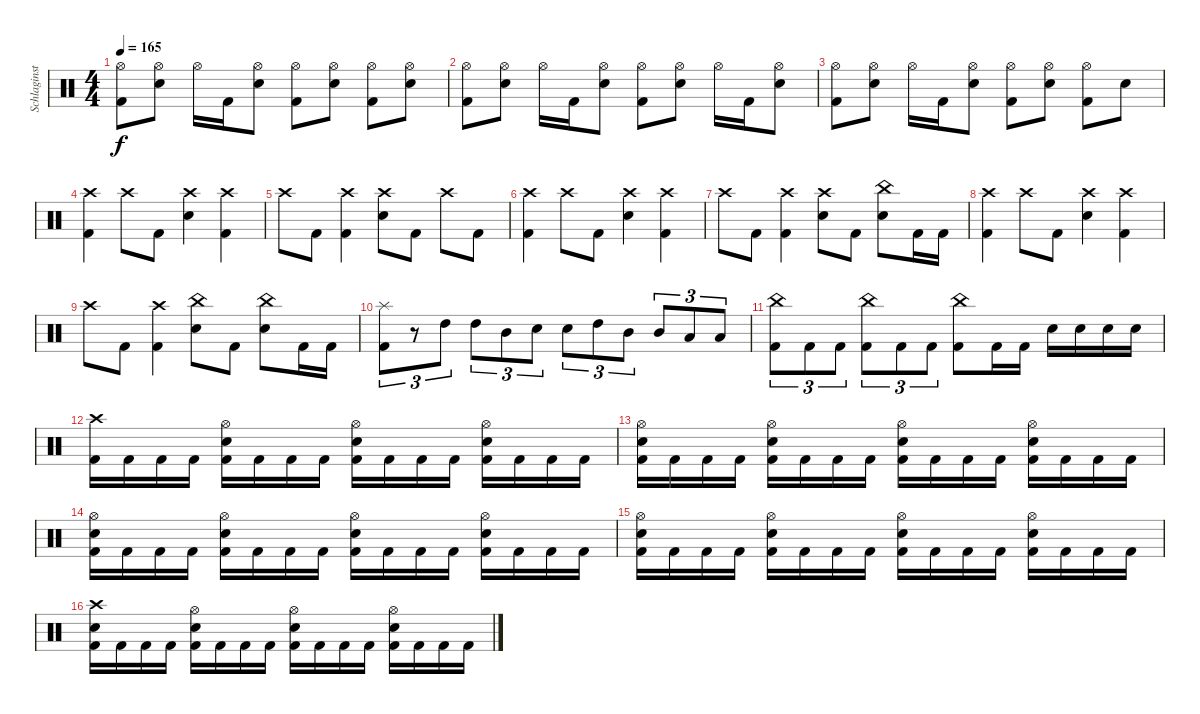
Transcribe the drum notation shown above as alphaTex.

\track ("Schlaginstrumente - Auswahl" "Schlaginst") {instrument percussion}
\staff {score}
\articulation defaults
\ts (4 4)
\tempo 165
\clef neutral
\ks c
("Hi-Hat (open)" "Kick (hit) 2").8{dy f} ("Hi-Hat (open)" "Snare (hit) 2").8 "Hi-Hat (open)".16 "Kick (hit) 2".16 ("Hi-Hat (open)" "Snare (hit) 2").8 ("Hi-Hat (open)" "Kick (hit) 2").8 ("Hi-Hat (open)" "Snare (hit) 2").8 ("Hi-Hat (open)" "Kick (hit) 2").8 ("Hi-Hat (open)" "Snare (hit) 2").8 |
("Hi-Hat (open)" "Kick (hit) 2").8 ("Hi-Hat (open)" "Snare (hit) 2").8 "Hi-Hat (open)".16 "Kick (hit) 2".16 ("Hi-Hat (open)" "Snare (hit) 2").8 ("Hi-Hat (open)" "Kick (hit) 2").8 ("Hi-Hat (open)" "Snare (hit) 2").8 "Hi-Hat (open)".16 "Kick (hit) 2".16 ("Hi-Hat (open)" "Snare (hit) 2").8 |
("Hi-Hat (open)" "Kick (hit) 2").8 ("Hi-Hat (open)" "Snare (hit) 2").8 "Hi-Hat (open)".16 "Kick (hit) 2".16 ("Hi-Hat (open)" "Snare (hit) 2").8 ("Hi-Hat (open)" "Kick (hit) 2").8 ("Hi-Hat (open)" "Snare (hit) 2").8 ("Hi-Hat (open)" "Kick (hit) 2").8 "Snare (hit) 2".8 |
("Crash high (hit)" "Kick (hit) 2").4 "Crash high (hit)".8 "Kick (hit) 2".8 ("Crash high (hit)" "Snare (hit) 2").4 ("Crash high (hit)" "Kick (hit) 2").4 |
"Crash high (hit)".8 "Kick (hit) 2".8 ("Crash high (hit)" "Kick (hit) 2").4 ("Crash high (hit)" "Snare (hit) 2").8 "Kick (hit) 2".8 "Crash high (hit)".8 "Kick (hit) 2".8 |
("Crash high (hit)" "Kick (hit) 2").4 "Crash high (hit)".8 "Kick (hit) 2".8 ("Crash high (hit)" "Snare (hit) 2").4 ("Crash high (hit)" "Kick (hit) 2").4 |
"Crash high (hit)".8 "Kick (hit) 2".8 ("Crash high (hit)" "Kick (hit) 2").4 ("Crash high (hit)" "Snare (hit) 2").8 "Kick (hit) 2".8 ("China (hit)" "Snare (hit) 2").8 "Kick (hit) 2".16 "Kick (hit) 2".16 |
("Crash high (hit)" "Kick (hit) 2").4 "Crash high (hit)".8 "Kick (hit) 2".8 ("Crash high (hit)" "Snare (hit) 2").4 ("Crash high (hit)" "Kick (hit) 2").4 |
"Crash high (hit)".8 "Kick (hit) 2".8 ("Crash high (hit)" "Kick (hit) 2").4 ("China (hit)" "Snare (hit) 2").8 "Kick (hit) 2".8 ("China (hit)" "Snare (hit) 2").8 "Kick (hit) 2".16 "Kick (hit) 2".16 |
("Splash (hit)" "Kick (hit) 2").8{tu (3 2)} r.8{tu (3 2)} "High Tom (hit)".8{tu (3 2)} "High Tom (hit)".8{tu (3 2)} "Mid Tom (hit)".8{tu (3 2)} "Snare (hit) 2".8{tu (3 2)} "Snare (hit) 2".8{tu (3 2)} "High Tom (hit)".8{tu (3 2)} "Mid Tom (hit)".8{tu (3 2)} "Mid Tom (hit)".8{tu (3 2)} "Low Tom (hit)".8{tu (3 2)} "Low Tom (hit)".8{tu (3 2)} |
("China (hit)" "Kick (hit) 2").8{tu (3 2)} "Kick (hit) 2".8{tu (3 2)} "Kick (hit) 2".8{tu (3 2)} ("China (hit)" "Kick (hit) 2").8{tu (3 2)} "Kick (hit) 2".8{tu (3 2)} "Kick (hit) 2".8{tu (3 2)} ("China (hit)" "Kick (hit) 2").8 "Kick (hit) 2".16 "Kick (hit) 2".16 "Snare (hit) 2".16 "Snare (hit) 2".16 "Snare (hit) 2".16 "Snare (hit) 2".16 |
("Crash high (hit)" "Kick (hit) 2").16 "Kick (hit) 2".16 "Kick (hit) 2".16 "Kick (hit) 2".16 ("Hi-Hat (open)" "Snare (hit) 2" "Kick (hit) 2").16 "Kick (hit) 2".16 "Kick (hit) 2".16 "Kick (hit) 2".16 ("Hi-Hat (open)" "Snare (hit) 2" "Kick (hit) 2").16 "Kick (hit) 2".16 "Kick (hit) 2".16 "Kick (hit) 2".16 ("Hi-Hat (open)" "Snare (hit) 2" "Kick (hit) 2").16 "Kick (hit) 2".16 "Kick (hit) 2".16 "Kick (hit) 2".16 |
("Hi-Hat (open)" "Snare (hit) 2" "Kick (hit) 2").16 "Kick (hit) 2".16 "Kick (hit) 2".16 "Kick (hit) 2".16 ("Hi-Hat (open)" "Snare (hit) 2" "Kick (hit) 2").16 "Kick (hit) 2".16 "Kick (hit) 2".16 "Kick (hit) 2".16 ("Hi-Hat (open)" "Snare (hit) 2" "Kick (hit) 2").16 "Kick (hit) 2".16 "Kick (hit) 2".16 "Kick (hit) 2".16 ("Hi-Hat (open)" "Snare (hit) 2" "Kick (hit) 2").16 "Kick (hit) 2".16 "Kick (hit) 2".16 "Kick (hit) 2".16 |
("Hi-Hat (open)" "Snare (hit) 2" "Kick (hit) 2").16 "Kick (hit) 2".16 "Kick (hit) 2".16 "Kick (hit) 2".16 ("Hi-Hat (open)" "Snare (hit) 2" "Kick (hit) 2").16 "Kick (hit) 2".16 "Kick (hit) 2".16 "Kick (hit) 2".16 ("Hi-Hat (open)" "Snare (hit) 2" "Kick (hit) 2").16 "Kick (hit) 2".16 "Kick (hit) 2".16 "Kick (hit) 2".16 ("Hi-Hat (open)" "Snare (hit) 2" "Kick (hit) 2").16 "Kick (hit) 2".16 "Kick (hit) 2".16 "Kick (hit) 2".16 |
("Hi-Hat (open)" "Snare (hit) 2" "Kick (hit) 2").16 "Kick (hit) 2".16 "Kick (hit) 2".16 "Kick (hit) 2".16 ("Hi-Hat (open)" "Snare (hit) 2" "Kick (hit) 2").16 "Kick (hit) 2".16 "Kick (hit) 2".16 "Kick (hit) 2".16 ("Hi-Hat (open)" "Snare (hit) 2" "Kick (hit) 2").16 "Kick (hit) 2".16 "Kick (hit) 2".16 "Kick (hit) 2".16 ("Hi-Hat (open)" "Snare (hit) 2" "Kick (hit) 2").16 "Kick (hit) 2".16 "Kick (hit) 2".16 "Kick (hit) 2".16 |
("Crash high (hit)" "Snare (hit) 2" "Kick (hit) 2").16 "Kick (hit) 2".16 "Kick (hit) 2".16 "Kick (hit) 2".16 ("Hi-Hat (open)" "Snare (hit) 2" "Kick (hit) 2").16 "Kick (hit) 2".16 "Kick (hit) 2".16 "Kick (hit) 2".16 ("Hi-Hat (open)" "Snare (hit) 2" "Kick (hit) 2").16 "Kick (hit) 2".16 "Kick (hit) 2".16 "Kick (hit) 2".16 ("Hi-Hat (open)" "Snare (hit) 2" "Kick (hit) 2").16 "Kick (hit) 2".16 "Kick (hit) 2".16 "Kick (hit) 2".16
